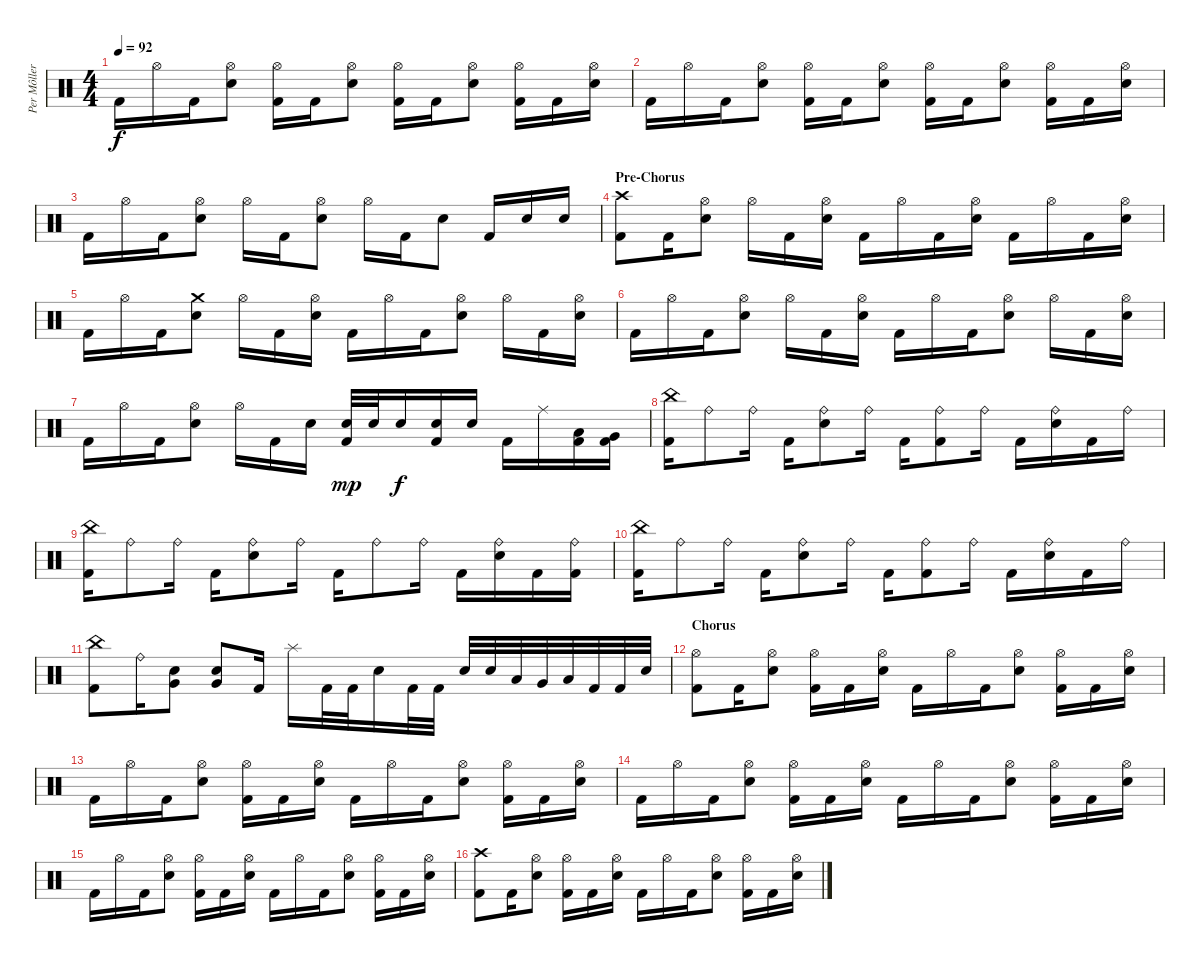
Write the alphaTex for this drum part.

\track ("Per Môller Jensen" "Per Môller") {instrument percussion}
\staff {score}
\articulation defaults
\ts (4 4)
\tempo 92
\clef neutral
\ks c "Kick (hit) 2".16{dy f} "Hi-Hat (open)".16 "Kick (hit) 2".16
("Electric Snare (hit)" "Hi-Hat (open)").8 ("Kick (hit) 2" "Hi-Hat (open)").16 "Kick (hit) 2".16 ("Electric Snare (hit)" "Hi-Hat (open)").8 ("Kick (hit) 2" "Hi-Hat (open)").16 "Kick (hit) 2".16 ("Electric Snare (hit)" "Hi-Hat (open)").8 ("Kick (hit) 2" "Hi-Hat (open)").16 "Kick (hit) 2".16 ("Electric Snare (hit)" "Hi-Hat (open)").16 |
"Kick (hit) 2".16 "Hi-Hat (open)".16 "Kick (hit) 2".16 ("Electric Snare (hit)" "Hi-Hat (open)").8 ("Kick (hit) 2" "Hi-Hat (open)").16 "Kick (hit) 2".16 ("Electric Snare (hit)" "Hi-Hat (open)").8 ("Kick (hit) 2" "Hi-Hat (open)").16 "Kick (hit) 2".16 ("Electric Snare (hit)" "Hi-Hat (open)").8 ("Kick (hit) 2" "Hi-Hat (open)").16 "Kick (hit) 2".16 ("Electric Snare (hit)" "Hi-Hat (open)").16 |
"Kick (hit) 2".16 "Hi-Hat (open)".16 "Kick (hit) 2".16 ("Electric Snare (hit)" "Hi-Hat (open)").8 "Hi-Hat (open)".16 "Kick (hit) 2".16 ("Electric Snare (hit)" "Hi-Hat (open)").8 "Hi-Hat (open)".16 "Kick (hit) 2".16 "Electric Snare (hit)".8 "Kick (hit) 2".16 "Electric Snare (hit)".16 "Electric Snare (hit)".16 |
\section ("" "Pre-Chorus")
("Kick (hit) 2" "Crash high (hit)").8 "Kick (hit) 2".16 ("Electric Snare (hit)" "Hi-Hat (open)").8 "Hi-Hat (open)".16 "Kick (hit) 2".16 ("Electric Snare (hit)" "Hi-Hat (open)").16 "Kick (hit) 2".16 "Hi-Hat (open)".16 "Kick (hit) 2".16 ("Electric Snare (hit)" "Hi-Hat (open)").16 "Kick (hit) 2".16 "Hi-Hat (open)".16 "Kick (hit) 2".16 ("Electric Snare (hit)" "Hi-Hat (open)").16 |
"Kick (hit) 2".16 "Hi-Hat (open)".16 "Kick (hit) 2".16 ("Electric Snare (hit)" "Crash medium (hit)").8 "Hi-Hat (open)".16 "Kick (hit) 2".16 ("Electric Snare (hit)" "Hi-Hat (open)").16 "Kick (hit) 2".16 "Hi-Hat (open)".16 "Kick (hit) 2".16 ("Electric Snare (hit)" "Hi-Hat (open)").8 "Hi-Hat (open)".16 "Kick (hit) 2".16 ("Electric Snare (hit)" "Hi-Hat (open)").16 |
"Kick (hit) 2".16 "Hi-Hat (open)".16 "Kick (hit) 2".16 ("Electric Snare (hit)" "Hi-Hat (open)").8 "Hi-Hat (open)".16 "Kick (hit) 2".16 ("Electric Snare (hit)" "Hi-Hat (open)").16 "Kick (hit) 2".16 "Hi-Hat (open)".16 "Kick (hit) 2".16 ("Electric Snare (hit)" "Hi-Hat (open)").8 "Hi-Hat (open)".16 "Kick (hit) 2".16 ("Electric Snare (hit)" "Hi-Hat (open)").16 |
"Kick (hit) 2".16 "Hi-Hat (open)".16 "Kick (hit) 2".16 ("Electric Snare (hit)" "Hi-Hat (open)").8 "Hi-Hat (open)".16 "Kick (hit) 2".16 "Electric Snare (hit)".16 ("Electric Snare (hit)" "Kick (hit) 2").32{dy mp} "Electric Snare (hit)".32 "Electric Snare (hit)".16{dy f} ("Electric Snare (hit)" "Kick (hit) 2").16 "Electric Snare (hit)".16 "Kick (hit) 2".16 "Ride (middle)".16 ("Kick (hit) 2" "Low Tom (hit)").16 ("Kick (hit) 2" "Very Low Tom (hit)").16 |
("Kick (hit) 2" "China (hit)").16 "Ride (bell)".8 "Ride (bell)".16 "Kick (hit) 2".16 ("Electric Snare (hit)" "Ride (bell)").8 "Ride (bell)".16 "Kick (hit) 2".16 ("Kick (hit) 2" "Ride (bell)").8 "Ride (bell)".16 "Kick (hit) 2".16 ("Electric Snare (hit)" "Ride (bell)").16 "Kick (hit) 2".16 "Ride (bell)".16 |
("Kick (hit) 2" "China (hit)").16 "Ride (bell)".8 "Ride (bell)".16 "Kick (hit) 2".16 ("Electric Snare (hit)" "Ride (bell)").8 "Ride (bell)".16 "Kick (hit) 2".16 "Ride (bell)".8 "Ride (bell)".16 "Kick (hit) 2".16 ("Electric Snare (hit)" "Ride (bell)").16 "Kick (hit) 2".16 ("Kick (hit) 2" "Ride (bell)").16 |
("Kick (hit) 2" "China (hit)").16 "Ride (bell)".8 "Ride (bell)".16 "Kick (hit) 2".16 ("Electric Snare (hit)" "Ride (bell)").8 "Ride (bell)".16 "Kick (hit) 2".16 ("Kick (hit) 2" "Ride (bell)").8 "Ride (bell)".16 "Kick (hit) 2".16 ("Electric Snare (hit)" "Ride (bell)").16 "Kick (hit) 2".16 "Ride (bell)".16 |
("Kick (hit) 2" "China (hit)").8 "Ride (bell)".16 ("Electric Snare (hit)" "Very Low Tom (hit)").8 ("Electric Snare (hit)" "Very Low Tom (hit)").8 "Kick (hit) 2".16 "Splash (hit)".16 "Kick (hit) 2".32 "Kick (hit) 2".32 "Electric Snare (hit)".16 "Kick (hit) 2".32 "Kick (hit) 2".32 "Electric Snare (hit)".32 "Electric Snare (hit)".32 "Low Tom (hit)".32 "Very Low Tom (hit)".32 "Low Floor Tom (hit)".32 "Kick (hit) 2".32 "Kick (hit) 2".32 "Electric Snare (hit)".32 |
\section ("" "Chorus")
("Kick (hit) 2" "Hi-Hat (open)").8 "Kick (hit) 2".16 ("Electric Snare (hit)" "Hi-Hat (open)").8 ("Kick (hit) 2" "Hi-Hat (open)").16 "Kick (hit) 2".16 ("Electric Snare (hit)" "Hi-Hat (open)").16 "Kick (hit) 2".16 "Hi-Hat (open)".16 "Kick (hit) 2".16 ("Electric Snare (hit)" "Hi-Hat (open)").8 ("Kick (hit) 2" "Hi-Hat (open)").16 "Kick (hit) 2".16 ("Electric Snare (hit)" "Hi-Hat (open)").16 |
"Kick (hit) 2".16 "Hi-Hat (open)".16 "Kick (hit) 2".16 ("Electric Snare (hit)" "Hi-Hat (open)").8 ("Kick (hit) 2" "Hi-Hat (open)").16 "Kick (hit) 2".16 ("Electric Snare (hit)" "Hi-Hat (open)").16 "Kick (hit) 2".16 "Hi-Hat (open)".16 "Kick (hit) 2".16 ("Electric Snare (hit)" "Hi-Hat (open)").8 ("Kick (hit) 2" "Hi-Hat (open)").16 "Kick (hit) 2".16 ("Electric Snare (hit)" "Hi-Hat (open)").16 |
"Kick (hit) 2".16 "Hi-Hat (open)".16 "Kick (hit) 2".16 ("Electric Snare (hit)" "Hi-Hat (open)").8 ("Kick (hit) 2" "Hi-Hat (open)").16 "Kick (hit) 2".16 ("Electric Snare (hit)" "Hi-Hat (open)").16 "Kick (hit) 2".16 "Hi-Hat (open)".16 "Kick (hit) 2".16 ("Electric Snare (hit)" "Hi-Hat (open)").8 ("Kick (hit) 2" "Hi-Hat (open)").16 "Kick (hit) 2".16 ("Electric Snare (hit)" "Hi-Hat (open)").16 |
"Kick (hit) 2".16 "Hi-Hat (open)".16 "Kick (hit) 2".16 ("Electric Snare (hit)" "Hi-Hat (open)").8 ("Kick (hit) 2" "Hi-Hat (open)").16 "Kick (hit) 2".16 ("Electric Snare (hit)" "Hi-Hat (open)").16 "Kick (hit) 2".16 "Hi-Hat (open)".16 "Kick (hit) 2".16 ("Electric Snare (hit)" "Hi-Hat (open)").8 ("Kick (hit) 2" "Hi-Hat (open)").16 "Kick (hit) 2".16 ("Electric Snare (hit)" "Hi-Hat (open)").16 |
("Kick (hit) 2" "Crash high (hit)").8 "Kick (hit) 2".16 ("Electric Snare (hit)" "Hi-Hat (open)").8 ("Kick (hit) 2" "Hi-Hat (open)").16 "Kick (hit) 2".16 ("Electric Snare (hit)" "Hi-Hat (open)").16 "Kick (hit) 2".16 "Hi-Hat (open)".16 "Kick (hit) 2".16 ("Electric Snare (hit)" "Hi-Hat (open)").8 ("Kick (hit) 2" "Hi-Hat (open)").16 "Kick (hit) 2".16 ("Electric Snare (hit)" "Hi-Hat (open)").16
